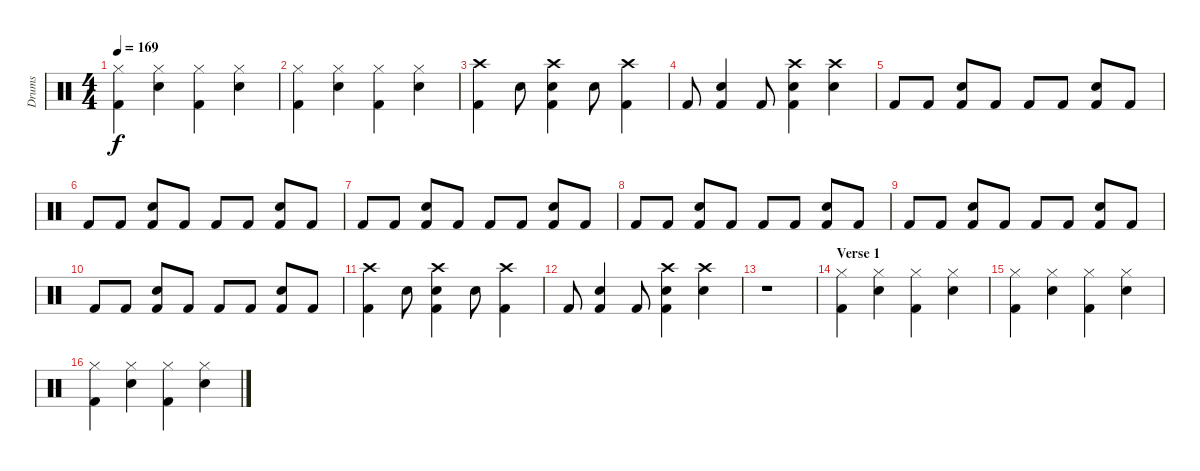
\track ("Drums" "Drums") {instrument percussion}
\staff {score}
\articulation defaults
\ts (4 4)
\tempo 169
\clef neutral
\ks c
("Hi-Hat (closed)" "Kick (hit) 2").4{dy f} ("Hi-Hat (closed)" "Snare (hit) 2").4 ("Hi-Hat (closed)" "Kick (hit) 2").4 ("Hi-Hat (closed)" "Snare (hit) 2").4 |
("Hi-Hat (closed)" "Kick (hit) 2").4 ("Hi-Hat (closed)" "Snare (hit) 2").4 ("Hi-Hat (closed)" "Kick (hit) 2").4 ("Hi-Hat (closed)" "Snare (hit) 2").4 |
("Crash high (hit)" "Kick (hit) 2").4 "Snare (hit) 2".8 ("Crash high (hit)" "Snare (hit) 2" "Kick (hit) 2").4 "Snare (hit) 2".8 ("Crash high (hit)" "Kick (hit) 2").4 |
"Kick (hit) 2".8 ("Snare (hit) 2" "Kick (hit) 2").4 "Kick (hit) 2".8 ("Kick (hit) 2" "Crash high (hit)" "Snare (hit) 2").4 ("Crash high (hit)" "Snare (hit) 2").4 |
"Kick (hit) 2".8 "Kick (hit) 2".8 ("Snare (hit) 2" "Kick (hit) 2").8 "Kick (hit) 2".8 "Kick (hit) 2".8 "Kick (hit) 2".8 ("Snare (hit) 2" "Kick (hit) 2").8 "Kick (hit) 2".8 |
"Kick (hit) 2".8 "Kick (hit) 2".8 ("Snare (hit) 2" "Kick (hit) 2").8 "Kick (hit) 2".8 "Kick (hit) 2".8 "Kick (hit) 2".8 ("Snare (hit) 2" "Kick (hit) 2").8 "Kick (hit) 2".8 |
"Kick (hit) 2".8 "Kick (hit) 2".8 ("Snare (hit) 2" "Kick (hit) 2").8 "Kick (hit) 2".8 "Kick (hit) 2".8 "Kick (hit) 2".8 ("Snare (hit) 2" "Kick (hit) 2").8 "Kick (hit) 2".8 |
"Kick (hit) 2".8 "Kick (hit) 2".8 ("Snare (hit) 2" "Kick (hit) 2").8 "Kick (hit) 2".8 "Kick (hit) 2".8 "Kick (hit) 2".8 ("Snare (hit) 2" "Kick (hit) 2").8 "Kick (hit) 2".8 |
"Kick (hit) 2".8 "Kick (hit) 2".8 ("Snare (hit) 2" "Kick (hit) 2").8 "Kick (hit) 2".8 "Kick (hit) 2".8 "Kick (hit) 2".8 ("Snare (hit) 2" "Kick (hit) 2").8 "Kick (hit) 2".8 |
"Kick (hit) 2".8 "Kick (hit) 2".8 ("Snare (hit) 2" "Kick (hit) 2").8 "Kick (hit) 2".8 "Kick (hit) 2".8 "Kick (hit) 2".8 ("Snare (hit) 2" "Kick (hit) 2").8 "Kick (hit) 2".8 |
("Crash high (hit)" "Kick (hit) 2").4 "Snare (hit) 2".8 ("Crash high (hit)" "Snare (hit) 2" "Kick (hit) 2").4 "Snare (hit) 2".8 ("Crash high (hit)" "Kick (hit) 2").4 |
"Kick (hit) 2".8 ("Snare (hit) 2" "Kick (hit) 2").4 "Kick (hit) 2".8 ("Kick (hit) 2" "Crash high (hit)" "Snare (hit) 2").4 ("Crash high (hit)" "Snare (hit) 2").4 |
r.1 |
\section ("" "Verse 1")
("Hi-Hat (closed)" "Kick (hit) 2").4 ("Hi-Hat (closed)" "Snare (hit) 2").4 ("Hi-Hat (closed)" "Kick (hit) 2").4 ("Hi-Hat (closed)" "Snare (hit) 2").4 |
("Hi-Hat (closed)" "Kick (hit) 2").4 ("Hi-Hat (closed)" "Snare (hit) 2").4 ("Hi-Hat (closed)" "Kick (hit) 2").4 ("Hi-Hat (closed)" "Snare (hit) 2").4 |
("Hi-Hat (closed)" "Kick (hit) 2").4 ("Hi-Hat (closed)" "Snare (hit) 2").4 ("Hi-Hat (closed)" "Kick (hit) 2").4 ("Hi-Hat (closed)" "Snare (hit) 2").4
